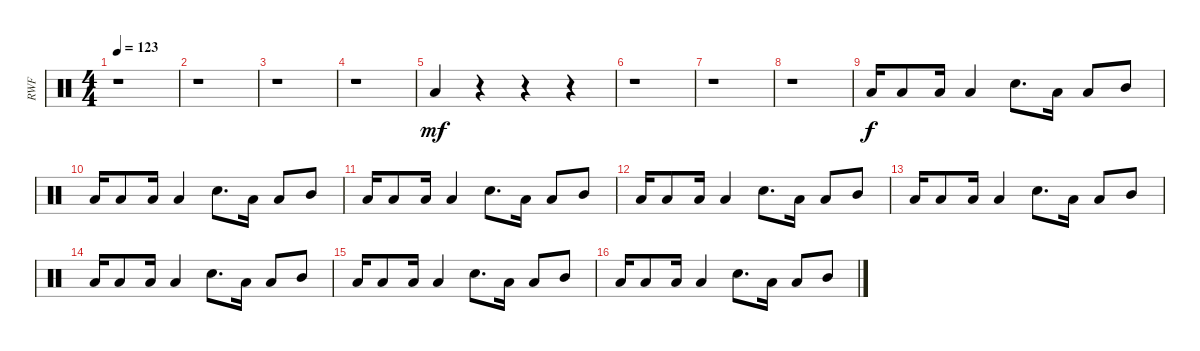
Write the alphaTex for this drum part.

\track ("RWF" "RWF") {instrument percussion}
\staff {score}
\articulation defaults
\ts (4 4)
\tempo 123
\clef neutral
\ks c
r.1{dy f} |
r.1 |
r.1 |
r.1 |
"Low Tom (hit)".4{dy mf} r.4 r.4 r.4 |
r.1 |
r.1 |
r.1 |
"Low Tom (hit)".16{dy f} "Low Tom (hit)".8 "Low Tom (hit)".16 "Low Tom (hit)".4 "Electric Snare (hit)".8{d} "Low Tom (hit)".16 "Low Tom (hit)".8 "Mid Tom (hit)".8 |
"Low Tom (hit)".16 "Low Tom (hit)".8 "Low Tom (hit)".16 "Low Tom (hit)".4 "Electric Snare (hit)".8{d} "Low Tom (hit)".16 "Low Tom (hit)".8 "Mid Tom (hit)".8 |
"Low Tom (hit)".16 "Low Tom (hit)".8 "Low Tom (hit)".16 "Low Tom (hit)".4 "Electric Snare (hit)".8{d} "Low Tom (hit)".16 "Low Tom (hit)".8 "Mid Tom (hit)".8 |
"Low Tom (hit)".16 "Low Tom (hit)".8 "Low Tom (hit)".16 "Low Tom (hit)".4 "Electric Snare (hit)".8{d} "Low Tom (hit)".16 "Low Tom (hit)".8 "Mid Tom (hit)".8 |
"Low Tom (hit)".16 "Low Tom (hit)".8 "Low Tom (hit)".16 "Low Tom (hit)".4 "Electric Snare (hit)".8{d} "Low Tom (hit)".16 "Low Tom (hit)".8 "Mid Tom (hit)".8 |
"Low Tom (hit)".16 "Low Tom (hit)".8 "Low Tom (hit)".16 "Low Tom (hit)".4 "Electric Snare (hit)".8{d} "Low Tom (hit)".16 "Low Tom (hit)".8 "Mid Tom (hit)".8 |
"Low Tom (hit)".16 "Low Tom (hit)".8 "Low Tom (hit)".16 "Low Tom (hit)".4 "Electric Snare (hit)".8{d} "Low Tom (hit)".16 "Low Tom (hit)".8 "Mid Tom (hit)".8 |
"Low Tom (hit)".16 "Low Tom (hit)".8 "Low Tom (hit)".16 "Low Tom (hit)".4 "Electric Snare (hit)".8{d} "Low Tom (hit)".16 "Low Tom (hit)".8 "Mid Tom (hit)".8
